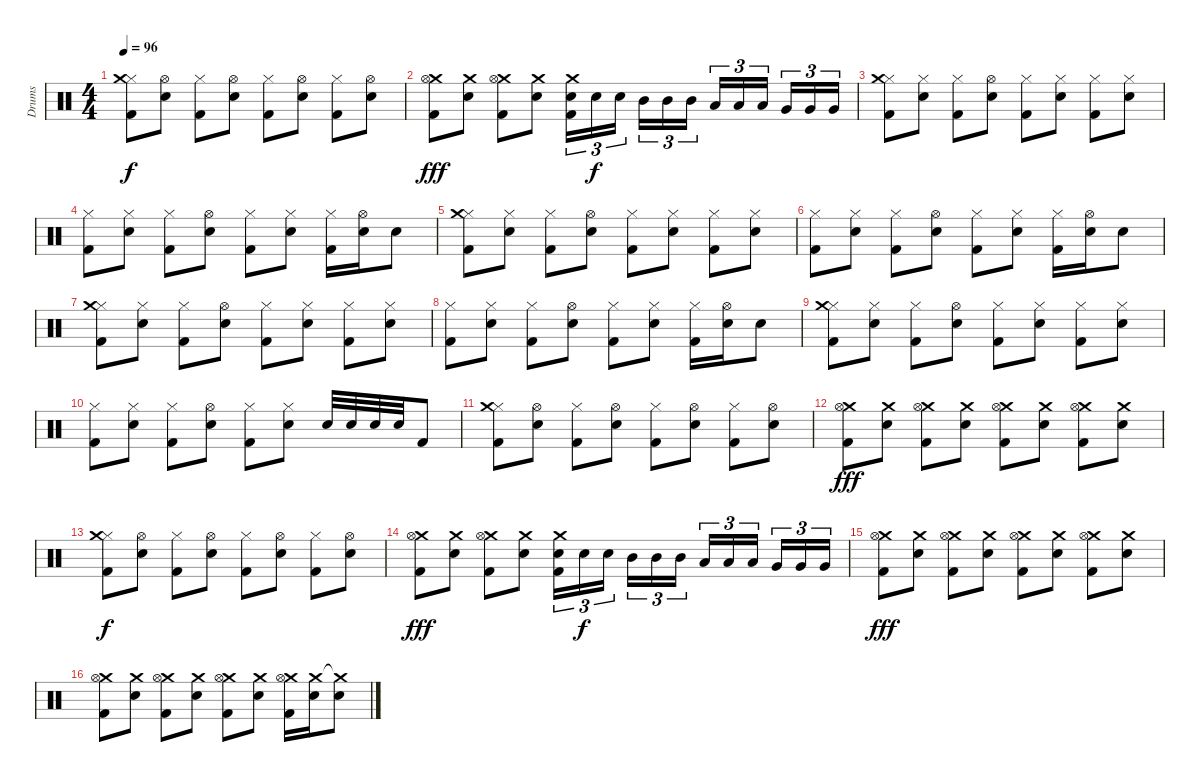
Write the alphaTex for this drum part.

\track ("Drums" "Drums") {instrument percussion}
\staff {score}
\articulation defaults
\ts (4 4)
\tempo 96
\clef neutral
\ks c
("Hi-Hat (closed)" "Crash medium (hit)" "Kick (hit) 2").8{dy f} ("Hi-Hat (open)" "Snare (hit) 2").8 ("Hi-Hat (closed)" "Kick (hit) 2").8 ("Hi-Hat (open)" "Snare (hit) 2").8 ("Hi-Hat (closed)" "Kick (hit) 2").8 ("Hi-Hat (open)" "Snare (hit) 2").8 ("Hi-Hat (closed)" "Kick (hit) 2").8 ("Hi-Hat (open)" "Snare (hit) 2").8 |
("Crash medium (hit)" "Hi-Hat (open)" "Kick (hit) 2").8{dy fff} ("Crash medium (hit)" "Snare (hit) 2").8 ("Crash medium (hit)" "Hi-Hat (open)" "Kick (hit) 2").8 ("Crash medium (hit)" "Snare (hit) 2").8 ("Crash medium (hit)" "Snare (hit) 2" "Kick (hit) 2").16{tu (3 2)} "Snare (hit) 2".16{tu (3 2) dy f} "Snare (hit) 2".16{tu (3 2)} "Mid Tom (hit)".16{tu (3 2)} "Mid Tom (hit)".16{tu (3 2)} "Mid Tom (hit)".16{tu (3 2)} "Low Tom (hit)".16{tu (3 2)} "Low Tom (hit)".16{tu (3 2)} "Low Tom (hit)".16{tu (3 2)} "Very Low Tom (hit)".16{tu (3 2)} "Very Low Tom (hit)".16{tu (3 2)} "Very Low Tom (hit)".16{tu (3 2)} |
("Hi-Hat (closed)" "Crash medium (hit)" "Kick (hit) 2").8 ("Hi-Hat (closed)" "Snare (hit) 2").8 ("Hi-Hat (closed)" "Kick (hit) 2").8 ("Hi-Hat (open)" "Snare (hit) 2").8 ("Hi-Hat (closed)" "Kick (hit) 2").8 ("Hi-Hat (closed)" "Snare (hit) 2").8 ("Hi-Hat (closed)" "Kick (hit) 2").8 ("Hi-Hat (closed)" "Snare (hit) 2").8 |
("Hi-Hat (closed)" "Kick (hit) 2").8 ("Hi-Hat (closed)" "Snare (hit) 2").8 ("Hi-Hat (closed)" "Kick (hit) 2").8 ("Hi-Hat (open)" "Snare (hit) 2").8 ("Hi-Hat (closed)" "Kick (hit) 2").8 ("Hi-Hat (closed)" "Snare (hit) 2").8 ("Hi-Hat (closed)" "Kick (hit) 2").16 ("Hi-Hat (open)" "Snare (hit) 2").16 "Snare (hit) 2".8 |
("Hi-Hat (closed)" "Crash medium (hit)" "Kick (hit) 2").8 ("Hi-Hat (closed)" "Snare (hit) 2").8 ("Hi-Hat (closed)" "Kick (hit) 2").8 ("Hi-Hat (open)" "Snare (hit) 2").8 ("Hi-Hat (closed)" "Kick (hit) 2").8 ("Hi-Hat (closed)" "Snare (hit) 2").8 ("Hi-Hat (closed)" "Kick (hit) 2").8 ("Hi-Hat (closed)" "Snare (hit) 2").8 |
("Hi-Hat (closed)" "Kick (hit) 2").8 ("Hi-Hat (closed)" "Snare (hit) 2").8 ("Hi-Hat (closed)" "Kick (hit) 2").8 ("Hi-Hat (open)" "Snare (hit) 2").8 ("Hi-Hat (closed)" "Kick (hit) 2").8 ("Hi-Hat (closed)" "Snare (hit) 2").8 ("Hi-Hat (closed)" "Kick (hit) 2").16 ("Hi-Hat (open)" "Snare (hit) 2").16 "Snare (hit) 2".8 |
("Hi-Hat (closed)" "Crash medium (hit)" "Kick (hit) 2").8 ("Hi-Hat (closed)" "Snare (hit) 2").8 ("Hi-Hat (closed)" "Kick (hit) 2").8 ("Hi-Hat (open)" "Snare (hit) 2").8 ("Hi-Hat (closed)" "Kick (hit) 2").8 ("Hi-Hat (closed)" "Snare (hit) 2").8 ("Hi-Hat (closed)" "Kick (hit) 2").8 ("Hi-Hat (closed)" "Snare (hit) 2").8 |
("Hi-Hat (closed)" "Kick (hit) 2").8 ("Hi-Hat (closed)" "Snare (hit) 2").8 ("Hi-Hat (closed)" "Kick (hit) 2").8 ("Hi-Hat (open)" "Snare (hit) 2").8 ("Hi-Hat (closed)" "Kick (hit) 2").8 ("Hi-Hat (closed)" "Snare (hit) 2").8 ("Hi-Hat (closed)" "Kick (hit) 2").16 ("Hi-Hat (open)" "Snare (hit) 2").16 "Snare (hit) 2".8 |
("Hi-Hat (closed)" "Crash medium (hit)" "Kick (hit) 2").8 ("Hi-Hat (closed)" "Snare (hit) 2").8 ("Hi-Hat (closed)" "Kick (hit) 2").8 ("Hi-Hat (open)" "Snare (hit) 2").8 ("Hi-Hat (closed)" "Kick (hit) 2").8 ("Hi-Hat (closed)" "Snare (hit) 2").8 ("Hi-Hat (closed)" "Kick (hit) 2").8 ("Hi-Hat (closed)" "Snare (hit) 2").8 |
("Hi-Hat (closed)" "Kick (hit) 2").8 ("Hi-Hat (closed)" "Snare (hit) 2").8 ("Hi-Hat (closed)" "Kick (hit) 2").8 ("Hi-Hat (open)" "Snare (hit) 2").8 ("Hi-Hat (closed)" "Kick (hit) 2").8 ("Hi-Hat (closed)" "Snare (hit) 2").8 "Snare (hit) 2".32 "Snare (hit) 2".32 "Snare (hit) 2".32 "Snare (hit) 2".32 "Kick (hit) 2".8 |
("Hi-Hat (closed)" "Crash medium (hit)" "Kick (hit) 2").8 ("Hi-Hat (open)" "Snare (hit) 2").8 ("Hi-Hat (closed)" "Kick (hit) 2").8 ("Hi-Hat (open)" "Snare (hit) 2").8 ("Hi-Hat (closed)" "Kick (hit) 2").8 ("Hi-Hat (open)" "Snare (hit) 2").8 ("Hi-Hat (closed)" "Kick (hit) 2").8 ("Hi-Hat (open)" "Snare (hit) 2").8 |
("Crash medium (hit)" "Hi-Hat (open)" "Kick (hit) 2").8{dy fff} ("Crash medium (hit)" "Snare (hit) 2").8 ("Crash medium (hit)" "Hi-Hat (open)" "Kick (hit) 2").8 ("Crash medium (hit)" "Snare (hit) 2").8 ("Crash medium (hit)" "Hi-Hat (open)" "Kick (hit) 2").8 ("Crash medium (hit)" "Snare (hit) 2").8 ("Crash medium (hit)" "Hi-Hat (open)" "Kick (hit) 2").8 ("Crash medium (hit)" "Snare (hit) 2").8 |
("Hi-Hat (closed)" "Crash medium (hit)" "Kick (hit) 2").8{dy f} ("Hi-Hat (open)" "Snare (hit) 2").8 ("Hi-Hat (closed)" "Kick (hit) 2").8 ("Hi-Hat (open)" "Snare (hit) 2").8 ("Hi-Hat (closed)" "Kick (hit) 2").8 ("Hi-Hat (open)" "Snare (hit) 2").8 ("Hi-Hat (closed)" "Kick (hit) 2").8 ("Hi-Hat (open)" "Snare (hit) 2").8 |
("Crash medium (hit)" "Hi-Hat (open)" "Kick (hit) 2").8{dy fff} ("Crash medium (hit)" "Snare (hit) 2").8 ("Crash medium (hit)" "Hi-Hat (open)" "Kick (hit) 2").8 ("Crash medium (hit)" "Snare (hit) 2").8 ("Crash medium (hit)" "Snare (hit) 2" "Kick (hit) 2").16{tu (3 2)} "Snare (hit) 2".16{tu (3 2) dy f} "Snare (hit) 2".16{tu (3 2)} "Mid Tom (hit)".16{tu (3 2)} "Mid Tom (hit)".16{tu (3 2)} "Mid Tom (hit)".16{tu (3 2)} "Low Tom (hit)".16{tu (3 2)} "Low Tom (hit)".16{tu (3 2)} "Low Tom (hit)".16{tu (3 2)} "Very Low Tom (hit)".16{tu (3 2)} "Very Low Tom (hit)".16{tu (3 2)} "Very Low Tom (hit)".16{tu (3 2)} |
("Crash medium (hit)" "Hi-Hat (open)" "Kick (hit) 2").8{dy fff} ("Crash medium (hit)" "Snare (hit) 2").8 ("Crash medium (hit)" "Hi-Hat (open)" "Kick (hit) 2").8 ("Crash medium (hit)" "Snare (hit) 2").8 ("Crash medium (hit)" "Hi-Hat (open)" "Kick (hit) 2").8 ("Crash medium (hit)" "Snare (hit) 2").8 ("Crash medium (hit)" "Hi-Hat (open)" "Kick (hit) 2").8 ("Crash medium (hit)" "Snare (hit) 2").8 |
("Crash medium (hit)" "Hi-Hat (open)" "Kick (hit) 2").8 ("Crash medium (hit)" "Snare (hit) 2").8 ("Crash medium (hit)" "Hi-Hat (open)" "Kick (hit) 2").8 ("Crash medium (hit)" "Snare (hit) 2").8 ("Crash medium (hit)" "Hi-Hat (open)" "Kick (hit) 2").8 ("Crash medium (hit)" "Snare (hit) 2").8 ("Crash medium (hit)" "Hi-Hat (open)" "Kick (hit) 2").16 ("Crash medium (hit)" "Snare (hit) 2").16 ("Crash medium (hit)"{t} "Snare (hit) 2").8
